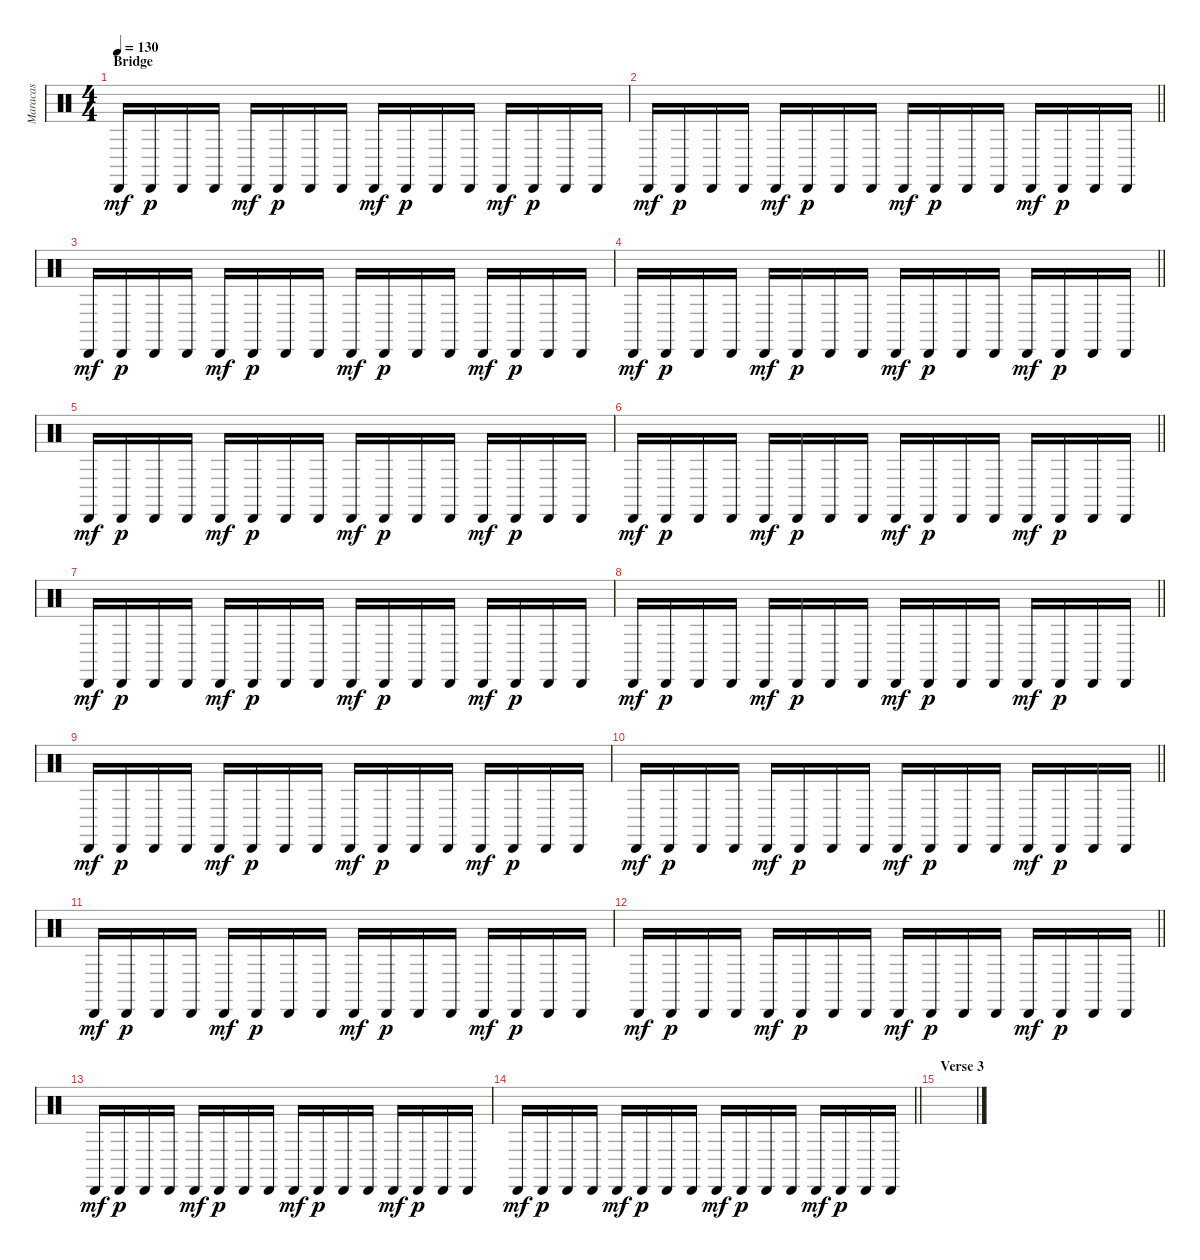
\track ("Maracas" "Maracas") {instrument percussion}
\staff {score}
\articulation defaults
\ts (4 4)
\section ("" "Bridge")
\tempo 130
\clef neutral
\ks c "Cabasa (hit)".16{dy mf} "Cabasa (hit)".16{dy p} "Cabasa (hit)".16 "Cabasa (hit)".16 "Cabasa (hit)".16{dy mf} "Cabasa (hit)".16{dy p} "Cabasa (hit)".16 "Cabasa (hit)".16 "Cabasa (hit)".16{dy mf} "Cabasa (hit)".16{dy p} "Cabasa (hit)".16 "Cabasa (hit)".16 "Cabasa (hit)".16{dy mf} "Cabasa (hit)".16{dy p} "Cabasa (hit)".16 "Cabasa (hit)".16
|
\barLineRight lightlight "Cabasa (hit)".16{dy mf} "Cabasa (hit)".16{dy p} "Cabasa (hit)".16 "Cabasa (hit)".16 "Cabasa (hit)".16{dy mf} "Cabasa (hit)".16{dy p} "Cabasa (hit)".16 "Cabasa (hit)".16 "Cabasa (hit)".16{dy mf} "Cabasa (hit)".16{dy p} "Cabasa (hit)".16 "Cabasa (hit)".16 "Cabasa (hit)".16{dy mf} "Cabasa (hit)".16{dy p} "Cabasa (hit)".16 "Cabasa (hit)".16
|
"Cabasa (hit)".16{dy mf} "Cabasa (hit)".16{dy p} "Cabasa (hit)".16 "Cabasa (hit)".16 "Cabasa (hit)".16{dy mf} "Cabasa (hit)".16{dy p} "Cabasa (hit)".16 "Cabasa (hit)".16 "Cabasa (hit)".16{dy mf} "Cabasa (hit)".16{dy p} "Cabasa (hit)".16 "Cabasa (hit)".16 "Cabasa (hit)".16{dy mf} "Cabasa (hit)".16{dy p} "Cabasa (hit)".16 "Cabasa (hit)".16 |
\barLineRight lightlight "Cabasa (hit)".16{dy mf} "Cabasa (hit)".16{dy p} "Cabasa (hit)".16 "Cabasa (hit)".16 "Cabasa (hit)".16{dy mf} "Cabasa (hit)".16{dy p} "Cabasa (hit)".16 "Cabasa (hit)".16 "Cabasa (hit)".16{dy mf} "Cabasa (hit)".16{dy p} "Cabasa (hit)".16 "Cabasa (hit)".16 "Cabasa (hit)".16{dy mf} "Cabasa (hit)".16{dy p} "Cabasa (hit)".16 "Cabasa (hit)".16
|
"Cabasa (hit)".16{dy mf} "Cabasa (hit)".16{dy p} "Cabasa (hit)".16 "Cabasa (hit)".16 "Cabasa (hit)".16{dy mf} "Cabasa (hit)".16{dy p} "Cabasa (hit)".16 "Cabasa (hit)".16 "Cabasa (hit)".16{dy mf} "Cabasa (hit)".16{dy p} "Cabasa (hit)".16 "Cabasa (hit)".16 "Cabasa (hit)".16{dy mf} "Cabasa (hit)".16{dy p} "Cabasa (hit)".16 "Cabasa (hit)".16 |
\barLineRight lightlight "Cabasa (hit)".16{dy mf} "Cabasa (hit)".16{dy p} "Cabasa (hit)".16 "Cabasa (hit)".16 "Cabasa (hit)".16{dy mf} "Cabasa (hit)".16{dy p} "Cabasa (hit)".16 "Cabasa (hit)".16 "Cabasa (hit)".16{dy mf} "Cabasa (hit)".16{dy p} "Cabasa (hit)".16 "Cabasa (hit)".16 "Cabasa (hit)".16{dy mf} "Cabasa (hit)".16{dy p} "Cabasa (hit)".16 "Cabasa (hit)".16
|
"Cabasa (hit)".16{dy mf} "Cabasa (hit)".16{dy p} "Cabasa (hit)".16 "Cabasa (hit)".16 "Cabasa (hit)".16{dy mf} "Cabasa (hit)".16{dy p} "Cabasa (hit)".16 "Cabasa (hit)".16 "Cabasa (hit)".16{dy mf} "Cabasa (hit)".16{dy p} "Cabasa (hit)".16 "Cabasa (hit)".16 "Cabasa (hit)".16{dy mf} "Cabasa (hit)".16{dy p} "Cabasa (hit)".16 "Cabasa (hit)".16 |
\barLineRight lightlight "Cabasa (hit)".16{dy mf} "Cabasa (hit)".16{dy p} "Cabasa (hit)".16 "Cabasa (hit)".16 "Cabasa (hit)".16{dy mf} "Cabasa (hit)".16{dy p} "Cabasa (hit)".16 "Cabasa (hit)".16 "Cabasa (hit)".16{dy mf} "Cabasa (hit)".16{dy p} "Cabasa (hit)".16 "Cabasa (hit)".16 "Cabasa (hit)".16{dy mf} "Cabasa (hit)".16{dy p} "Cabasa (hit)".16 "Cabasa (hit)".16
|
"Cabasa (hit)".16{dy mf} "Cabasa (hit)".16{dy p} "Cabasa (hit)".16 "Cabasa (hit)".16 "Cabasa (hit)".16{dy mf} "Cabasa (hit)".16{dy p} "Cabasa (hit)".16 "Cabasa (hit)".16 "Cabasa (hit)".16{dy mf} "Cabasa (hit)".16{dy p} "Cabasa (hit)".16 "Cabasa (hit)".16 "Cabasa (hit)".16{dy mf} "Cabasa (hit)".16{dy p} "Cabasa (hit)".16 "Cabasa (hit)".16 |
\barLineRight lightlight "Cabasa (hit)".16{dy mf} "Cabasa (hit)".16{dy p} "Cabasa (hit)".16 "Cabasa (hit)".16 "Cabasa (hit)".16{dy mf} "Cabasa (hit)".16{dy p} "Cabasa (hit)".16 "Cabasa (hit)".16 "Cabasa (hit)".16{dy mf} "Cabasa (hit)".16{dy p} "Cabasa (hit)".16 "Cabasa (hit)".16 "Cabasa (hit)".16{dy mf} "Cabasa (hit)".16{dy p} "Cabasa (hit)".16 "Cabasa (hit)".16
|
"Cabasa (hit)".16{dy mf} "Cabasa (hit)".16{dy p} "Cabasa (hit)".16 "Cabasa (hit)".16 "Cabasa (hit)".16{dy mf} "Cabasa (hit)".16{dy p} "Cabasa (hit)".16 "Cabasa (hit)".16 "Cabasa (hit)".16{dy mf} "Cabasa (hit)".16{dy p} "Cabasa (hit)".16 "Cabasa (hit)".16 "Cabasa (hit)".16{dy mf} "Cabasa (hit)".16{dy p} "Cabasa (hit)".16 "Cabasa (hit)".16 |
\barLineRight lightlight "Cabasa (hit)".16{dy mf} "Cabasa (hit)".16{dy p} "Cabasa (hit)".16 "Cabasa (hit)".16 "Cabasa (hit)".16{dy mf} "Cabasa (hit)".16{dy p} "Cabasa (hit)".16 "Cabasa (hit)".16 "Cabasa (hit)".16{dy mf} "Cabasa (hit)".16{dy p} "Cabasa (hit)".16 "Cabasa (hit)".16 "Cabasa (hit)".16{dy mf} "Cabasa (hit)".16{dy p} "Cabasa (hit)".16 "Cabasa (hit)".16
|
"Cabasa (hit)".16{dy mf} "Cabasa (hit)".16{dy p} "Cabasa (hit)".16 "Cabasa (hit)".16 "Cabasa (hit)".16{dy mf} "Cabasa (hit)".16{dy p} "Cabasa (hit)".16 "Cabasa (hit)".16 "Cabasa (hit)".16{dy mf} "Cabasa (hit)".16{dy p} "Cabasa (hit)".16 "Cabasa (hit)".16 "Cabasa (hit)".16{dy mf} "Cabasa (hit)".16{dy p} "Cabasa (hit)".16 "Cabasa (hit)".16 |
\barLineRight lightlight "Cabasa (hit)".16{dy mf} "Cabasa (hit)".16{dy p} "Cabasa (hit)".16 "Cabasa (hit)".16 "Cabasa (hit)".16{dy mf} "Cabasa (hit)".16{dy p} "Cabasa (hit)".16 "Cabasa (hit)".16 "Cabasa (hit)".16{dy mf} "Cabasa (hit)".16{dy p} "Cabasa (hit)".16 "Cabasa (hit)".16 "Cabasa (hit)".16{dy mf} "Cabasa (hit)".16{dy p} "Cabasa (hit)".16 "Cabasa (hit)".16
|
\section ("" "Verse 3")
